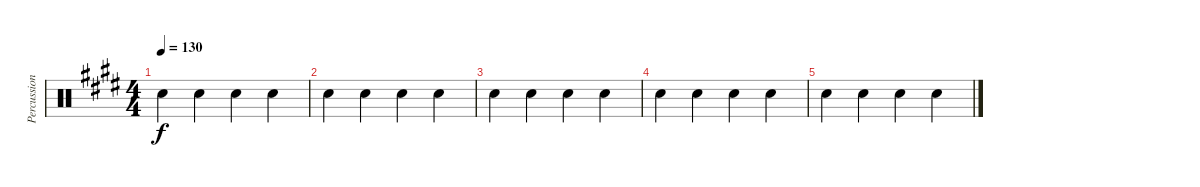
\track ("Percussion" "Percussion") {instrument percussion}
\staff {score}
\articulation defaults
\ts (4 4)
\tempo 130
\clef neutral
\ks e "Snare (hit) 2".4{dy f} "Snare (hit) 2".4 "Snare (hit) 2".4 "Snare (hit) 2".4
|
"Snare (hit) 2".4 "Snare (hit) 2".4 "Snare (hit) 2".4 "Snare (hit) 2".4 |
"Snare (hit) 2".4 "Snare (hit) 2".4 "Snare (hit) 2".4 "Snare (hit) 2".4 |
"Snare (hit) 2".4 "Snare (hit) 2".4 "Snare (hit) 2".4 "Snare (hit) 2".4 |
"Snare (hit) 2".4 "Snare (hit) 2".4 "Snare (hit) 2".4 "Snare (hit) 2".4
